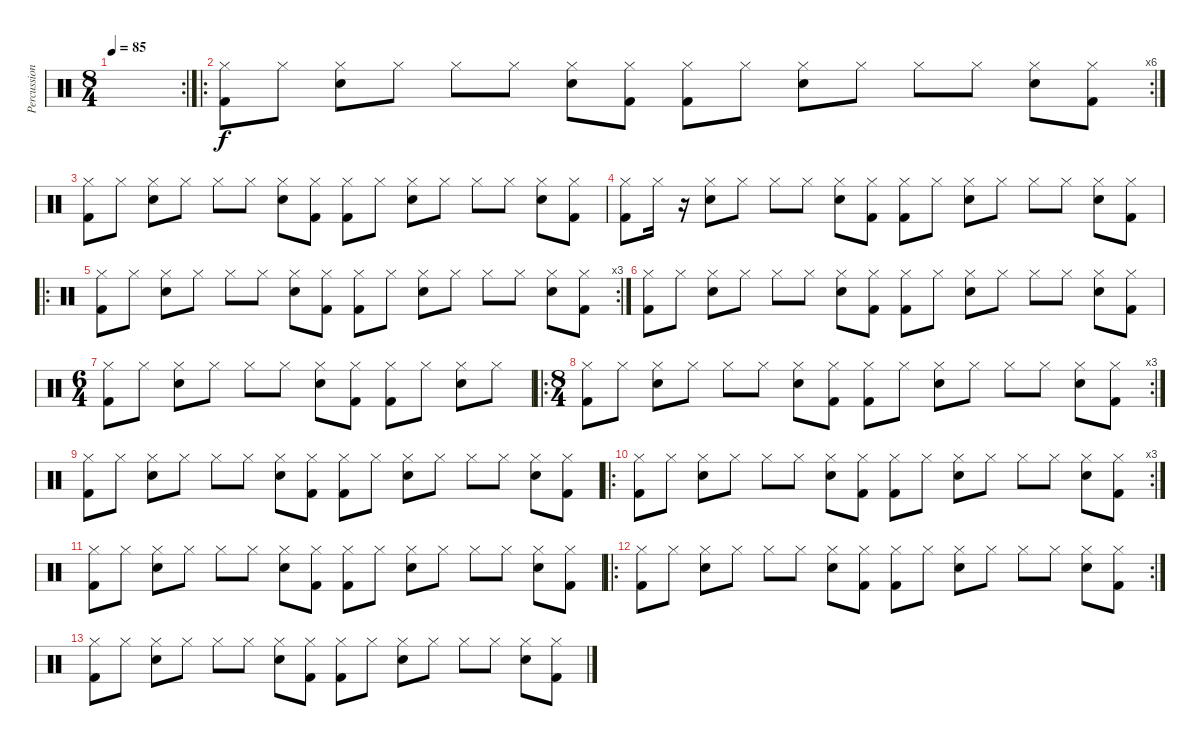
\track ("Percussions" "Percussion") {instrument percussion}
\staff {score}
\articulation defaults
\rc 2
\ts (8 4)
\tempo 85
\clef neutral
\ks c
|
\ro
\rc 6
("Hi-Hat (closed)" "Kick (hit) 2").8 "Hi-Hat (closed)".8 ("Hi-Hat (closed)" "Snare (hit) 2").8 "Hi-Hat (closed)".8 "Hi-Hat (closed)".8 "Hi-Hat (closed)".8 ("Hi-Hat (closed)" "Snare (hit) 2").8 ("Hi-Hat (closed)" "Kick (hit) 2").8 ("Hi-Hat (closed)" "Kick (hit) 2").8 "Hi-Hat (closed)".8 ("Hi-Hat (closed)" "Snare (hit) 2").8 "Hi-Hat (closed)".8 "Hi-Hat (closed)".8 "Hi-Hat (closed)".8 ("Hi-Hat (closed)" "Snare (hit) 2").8 ("Hi-Hat (closed)" "Kick (hit) 2").8 |
("Hi-Hat (closed)" "Kick (hit) 2").8 "Hi-Hat (closed)".8 ("Hi-Hat (closed)" "Snare (hit) 2").8 "Hi-Hat (closed)".8 "Hi-Hat (closed)".8 "Hi-Hat (closed)".8 ("Hi-Hat (closed)" "Snare (hit) 2").8 ("Hi-Hat (closed)" "Kick (hit) 2").8 ("Hi-Hat (closed)" "Kick (hit) 2").8 "Hi-Hat (closed)".8 ("Hi-Hat (closed)" "Snare (hit) 2").8 "Hi-Hat (closed)".8 "Hi-Hat (closed)".8 "Hi-Hat (closed)".8 ("Hi-Hat (closed)" "Snare (hit) 2").8 ("Hi-Hat (closed)" "Kick (hit) 2").8 |
("Hi-Hat (closed)" "Kick (hit) 2").8 "Hi-Hat (closed)".16 r.16 ("Hi-Hat (closed)" "Snare (hit) 2").8 "Hi-Hat (closed)".8 "Hi-Hat (closed)".8 "Hi-Hat (closed)".8 ("Hi-Hat (closed)" "Snare (hit) 2").8 ("Hi-Hat (closed)" "Kick (hit) 2").8 ("Hi-Hat (closed)" "Kick (hit) 2").8 "Hi-Hat (closed)".8 ("Hi-Hat (closed)" "Snare (hit) 2").8 "Hi-Hat (closed)".8 "Hi-Hat (closed)".8 "Hi-Hat (closed)".8 ("Hi-Hat (closed)" "Snare (hit) 2").8 ("Hi-Hat (closed)" "Kick (hit) 2").8 |
\ro
\rc 3
("Hi-Hat (closed)" "Kick (hit) 2").8 "Hi-Hat (closed)".8 ("Hi-Hat (closed)" "Snare (hit) 2").8 "Hi-Hat (closed)".8 "Hi-Hat (closed)".8 "Hi-Hat (closed)".8 ("Hi-Hat (closed)" "Snare (hit) 2").8 ("Hi-Hat (closed)" "Kick (hit) 2").8 ("Hi-Hat (closed)" "Kick (hit) 2").8 "Hi-Hat (closed)".8 ("Hi-Hat (closed)" "Snare (hit) 2").8 "Hi-Hat (closed)".8 "Hi-Hat (closed)".8 "Hi-Hat (closed)".8 ("Hi-Hat (closed)" "Snare (hit) 2").8 ("Hi-Hat (closed)" "Kick (hit) 2").8 |
("Hi-Hat (closed)" "Kick (hit) 2").8 "Hi-Hat (closed)".8 ("Hi-Hat (closed)" "Snare (hit) 2").8 "Hi-Hat (closed)".8 "Hi-Hat (closed)".8 "Hi-Hat (closed)".8 ("Hi-Hat (closed)" "Snare (hit) 2").8 ("Hi-Hat (closed)" "Kick (hit) 2").8 ("Hi-Hat (closed)" "Kick (hit) 2").8 "Hi-Hat (closed)".8 ("Hi-Hat (closed)" "Snare (hit) 2").8 "Hi-Hat (closed)".8 "Hi-Hat (closed)".8 "Hi-Hat (closed)".8 ("Hi-Hat (closed)" "Snare (hit) 2").8 ("Hi-Hat (closed)" "Kick (hit) 2").8 |
\ts (6 4)
("Hi-Hat (closed)" "Kick (hit) 2").8 "Hi-Hat (closed)".8 ("Hi-Hat (closed)" "Snare (hit) 2").8 "Hi-Hat (closed)".8 "Hi-Hat (closed)".8 "Hi-Hat (closed)".8 ("Hi-Hat (closed)" "Snare (hit) 2").8 ("Hi-Hat (closed)" "Kick (hit) 2").8 ("Hi-Hat (closed)" "Kick (hit) 2").8 "Hi-Hat (closed)".8 ("Hi-Hat (closed)" "Snare (hit) 2").8 "Hi-Hat (closed)".8 |
\ro
\rc 3
\ts (8 4)
("Hi-Hat (closed)" "Kick (hit) 2").8 "Hi-Hat (closed)".8 ("Hi-Hat (closed)" "Snare (hit) 2").8 "Hi-Hat (closed)".8 "Hi-Hat (closed)".8 "Hi-Hat (closed)".8 ("Hi-Hat (closed)" "Snare (hit) 2").8 ("Hi-Hat (closed)" "Kick (hit) 2").8 ("Hi-Hat (closed)" "Kick (hit) 2").8 "Hi-Hat (closed)".8 ("Hi-Hat (closed)" "Snare (hit) 2").8 "Hi-Hat (closed)".8 "Hi-Hat (closed)".8 "Hi-Hat (closed)".8 ("Hi-Hat (closed)" "Snare (hit) 2").8 ("Hi-Hat (closed)" "Kick (hit) 2").8 |
("Hi-Hat (closed)" "Kick (hit) 2").8 "Hi-Hat (closed)".8 ("Hi-Hat (closed)" "Snare (hit) 2").8 "Hi-Hat (closed)".8 "Hi-Hat (closed)".8 "Hi-Hat (closed)".8 ("Hi-Hat (closed)" "Snare (hit) 2").8 ("Hi-Hat (closed)" "Kick (hit) 2").8 ("Hi-Hat (closed)" "Kick (hit) 2").8 "Hi-Hat (closed)".8 ("Hi-Hat (closed)" "Snare (hit) 2").8 "Hi-Hat (closed)".8 "Hi-Hat (closed)".8 "Hi-Hat (closed)".8 ("Hi-Hat (closed)" "Snare (hit) 2").8 ("Hi-Hat (closed)" "Kick (hit) 2").8 |
\ro
\rc 3
("Hi-Hat (closed)" "Kick (hit) 2").8 "Hi-Hat (closed)".8 ("Hi-Hat (closed)" "Snare (hit) 2").8 "Hi-Hat (closed)".8 "Hi-Hat (closed)".8 "Hi-Hat (closed)".8 ("Hi-Hat (closed)" "Snare (hit) 2").8 ("Hi-Hat (closed)" "Kick (hit) 2").8 ("Hi-Hat (closed)" "Kick (hit) 2").8 "Hi-Hat (closed)".8 ("Hi-Hat (closed)" "Snare (hit) 2").8 "Hi-Hat (closed)".8 "Hi-Hat (closed)".8 "Hi-Hat (closed)".8 ("Hi-Hat (closed)" "Snare (hit) 2").8 ("Hi-Hat (closed)" "Kick (hit) 2").8 |
("Hi-Hat (closed)" "Kick (hit) 2").8 "Hi-Hat (closed)".8 ("Hi-Hat (closed)" "Snare (hit) 2").8 "Hi-Hat (closed)".8 "Hi-Hat (closed)".8 "Hi-Hat (closed)".8 ("Hi-Hat (closed)" "Snare (hit) 2").8 ("Hi-Hat (closed)" "Kick (hit) 2").8 ("Hi-Hat (closed)" "Kick (hit) 2").8 "Hi-Hat (closed)".8 ("Hi-Hat (closed)" "Snare (hit) 2").8 "Hi-Hat (closed)".8 "Hi-Hat (closed)".8 "Hi-Hat (closed)".8 ("Hi-Hat (closed)" "Snare (hit) 2").8 ("Hi-Hat (closed)" "Kick (hit) 2").8 |
\ro
\rc 2
("Hi-Hat (closed)" "Kick (hit) 2").8 "Hi-Hat (closed)".8 ("Hi-Hat (closed)" "Snare (hit) 2").8 "Hi-Hat (closed)".8 "Hi-Hat (closed)".8 "Hi-Hat (closed)".8 ("Hi-Hat (closed)" "Snare (hit) 2").8 ("Hi-Hat (closed)" "Kick (hit) 2").8 ("Hi-Hat (closed)" "Kick (hit) 2").8 "Hi-Hat (closed)".8 ("Hi-Hat (closed)" "Snare (hit) 2").8 "Hi-Hat (closed)".8 "Hi-Hat (closed)".8 "Hi-Hat (closed)".8 ("Hi-Hat (closed)" "Snare (hit) 2").8 ("Hi-Hat (closed)" "Kick (hit) 2").8 |
("Hi-Hat (closed)" "Kick (hit) 2").8 "Hi-Hat (closed)".8 ("Hi-Hat (closed)" "Snare (hit) 2").8 "Hi-Hat (closed)".8 "Hi-Hat (closed)".8 "Hi-Hat (closed)".8 ("Hi-Hat (closed)" "Snare (hit) 2").8 ("Hi-Hat (closed)" "Kick (hit) 2").8 ("Hi-Hat (closed)" "Kick (hit) 2").8 "Hi-Hat (closed)".8 ("Hi-Hat (closed)" "Snare (hit) 2").8 "Hi-Hat (closed)".8 "Hi-Hat (closed)".8 "Hi-Hat (closed)".8 ("Hi-Hat (closed)" "Snare (hit) 2").8 ("Hi-Hat (closed)" "Kick (hit) 2").8
